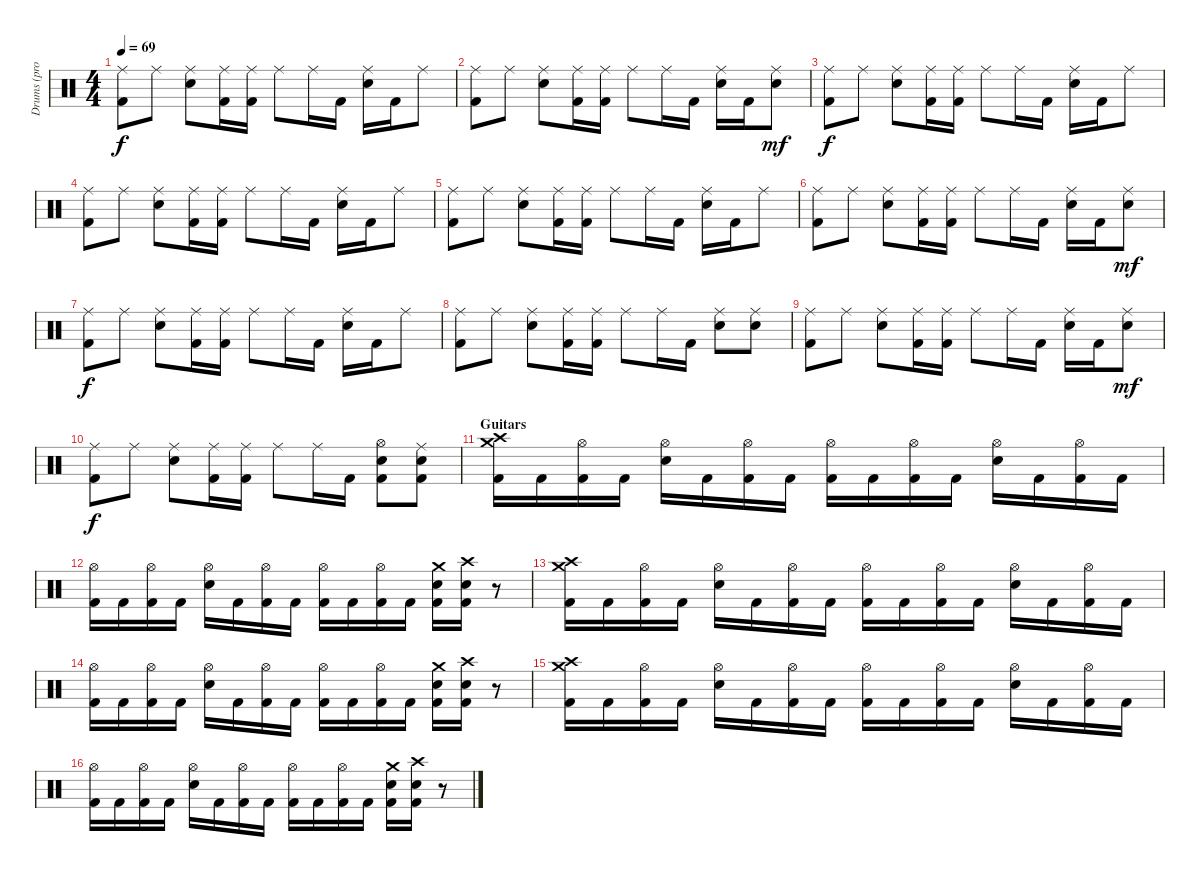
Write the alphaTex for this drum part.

\track ("Drums (proposal JZ)" "Drums (pro") {instrument percussion}
\staff {score}
\articulation defaults
\ts (4 4)
\tempo 69
\clef neutral
\ks c
("Ride (middle)" "Kick (hit) 2").8{dy f} "Ride (middle)".8 ("Ride (middle)" "Electric Snare (hit)").8 ("Ride (middle)" "Kick (hit) 2").16 ("Ride (middle)" "Kick (hit) 2").16 "Ride (middle)".8 "Ride (middle)".16 "Kick (hit) 2".16 ("Ride (middle)" "Electric Snare (hit)").16 "Kick (hit) 2".16 "Ride (middle)".8 |
("Ride (middle)" "Kick (hit) 2").8 "Ride (middle)".8 ("Ride (middle)" "Electric Snare (hit)").8 ("Ride (middle)" "Kick (hit) 2").16 ("Ride (middle)" "Kick (hit) 2").16 "Ride (middle)".8 "Ride (middle)".16 "Kick (hit) 2".16 ("Ride (middle)" "Electric Snare (hit)").16 "Kick (hit) 2".16 ("Ride (middle)" "Electric Snare (hit)").8{dy mf} |
("Ride (middle)" "Kick (hit) 2").8{dy f} "Ride (middle)".8 ("Ride (middle)" "Electric Snare (hit)").8 ("Ride (middle)" "Kick (hit) 2").16 ("Ride (middle)" "Kick (hit) 2").16 "Ride (middle)".8 "Ride (middle)".16 "Kick (hit) 2".16 ("Ride (middle)" "Electric Snare (hit)").16 "Kick (hit) 2".16 "Ride (middle)".8 |
("Ride (middle)" "Kick (hit) 2").8 "Ride (middle)".8 ("Ride (middle)" "Electric Snare (hit)").8 ("Ride (middle)" "Kick (hit) 2").16 ("Ride (middle)" "Kick (hit) 2").16 "Ride (middle)".8 "Ride (middle)".16 "Kick (hit) 2".16 ("Ride (middle)" "Electric Snare (hit)").16 "Kick (hit) 2".16 "Ride (middle)".8 |
("Ride (middle)" "Kick (hit) 2").8 "Ride (middle)".8 ("Ride (middle)" "Electric Snare (hit)").8 ("Ride (middle)" "Kick (hit) 2").16 ("Ride (middle)" "Kick (hit) 2").16 "Ride (middle)".8 "Ride (middle)".16 "Kick (hit) 2".16 ("Ride (middle)" "Electric Snare (hit)").16 "Kick (hit) 2".16 "Ride (middle)".8 |
("Ride (middle)" "Kick (hit) 2").8 "Ride (middle)".8 ("Ride (middle)" "Electric Snare (hit)").8 ("Ride (middle)" "Kick (hit) 2").16 ("Ride (middle)" "Kick (hit) 2").16 "Ride (middle)".8 "Ride (middle)".16 "Kick (hit) 2".16 ("Ride (middle)" "Electric Snare (hit)").16 "Kick (hit) 2".16 ("Ride (middle)" "Electric Snare (hit)").8{dy mf} |
("Ride (middle)" "Kick (hit) 2").8{dy f} "Ride (middle)".8 ("Ride (middle)" "Electric Snare (hit)").8 ("Ride (middle)" "Kick (hit) 2").16 ("Ride (middle)" "Kick (hit) 2").16 "Ride (middle)".8 "Ride (middle)".16 "Kick (hit) 2".16 ("Ride (middle)" "Electric Snare (hit)").16 "Kick (hit) 2".16 "Ride (middle)".8 |
("Ride (middle)" "Kick (hit) 2").8 "Ride (middle)".8 ("Ride (middle)" "Electric Snare (hit)").8 ("Ride (middle)" "Kick (hit) 2").16 ("Ride (middle)" "Kick (hit) 2").16 "Ride (middle)".8 "Ride (middle)".16 "Kick (hit) 2".16 ("Ride (middle)" "Electric Snare (hit)").8 ("Ride (middle)" "Electric Snare (hit)").8 |
("Ride (middle)" "Kick (hit) 2").8 "Ride (middle)".8 ("Ride (middle)" "Electric Snare (hit)").8 ("Ride (middle)" "Kick (hit) 2").16 ("Ride (middle)" "Kick (hit) 2").16 "Ride (middle)".8 "Ride (middle)".16 "Kick (hit) 2".16 ("Ride (middle)" "Electric Snare (hit)").16 "Kick (hit) 2".16 ("Ride (middle)" "Electric Snare (hit)").8{dy mf} |
("Ride (middle)" "Kick (hit) 2").8{dy f} "Ride (middle)".8 ("Ride (middle)" "Electric Snare (hit)").8 ("Ride (middle)" "Kick (hit) 2").16 ("Ride (middle)" "Kick (hit) 2").16 "Ride (middle)".8 "Ride (middle)".16 "Kick (hit) 2".16 ("Hi-Hat (open)" "Electric Snare (hit)" "Kick (hit) 2").8 ("Ride (middle)" "Electric Snare (hit)" "Kick (hit) 2").8 |
\section ("" "Guitars")
("Crash medium (hit)" "Crash high (hit)" "Kick (hit) 2").16 "Kick (hit) 2".16 ("Hi-Hat (open)" "Kick (hit) 2").16 "Kick (hit) 2".16 ("Hi-Hat (open)" "Electric Snare (hit)").16 "Kick (hit) 2".16 ("Hi-Hat (open)" "Kick (hit) 2").16 "Kick (hit) 2".16 ("Hi-Hat (open)" "Kick (hit) 2").16 "Kick (hit) 2".16 ("Hi-Hat (open)" "Kick (hit) 2").16 "Kick (hit) 2".16 ("Hi-Hat (open)" "Electric Snare (hit)").16 "Kick (hit) 2".16 ("Hi-Hat (open)" "Kick (hit) 2").16 "Kick (hit) 2".16 |
("Hi-Hat (open)" "Kick (hit) 2").16 "Kick (hit) 2".16 ("Hi-Hat (open)" "Kick (hit) 2").16 "Kick (hit) 2".16 ("Hi-Hat (open)" "Electric Snare (hit)").16 "Kick (hit) 2".16 ("Hi-Hat (open)" "Kick (hit) 2").16 "Kick (hit) 2".16 ("Hi-Hat (open)" "Kick (hit) 2").16 "Kick (hit) 2".16 ("Hi-Hat (open)" "Kick (hit) 2").16 "Kick (hit) 2".16 ("Crash medium (hit)" "Electric Snare (hit)" "Kick (hit) 2").16 ("Crash high (hit)" "Electric Snare (hit)" "Kick (hit) 2").16 r.8 |
("Crash medium (hit)" "Crash high (hit)" "Kick (hit) 2").16 "Kick (hit) 2".16 ("Hi-Hat (open)" "Kick (hit) 2").16 "Kick (hit) 2".16 ("Hi-Hat (open)" "Electric Snare (hit)").16 "Kick (hit) 2".16 ("Hi-Hat (open)" "Kick (hit) 2").16 "Kick (hit) 2".16 ("Hi-Hat (open)" "Kick (hit) 2").16 "Kick (hit) 2".16 ("Hi-Hat (open)" "Kick (hit) 2").16 "Kick (hit) 2".16 ("Hi-Hat (open)" "Electric Snare (hit)").16 "Kick (hit) 2".16 ("Hi-Hat (open)" "Kick (hit) 2").16 "Kick (hit) 2".16 |
("Hi-Hat (open)" "Kick (hit) 2").16 "Kick (hit) 2".16 ("Hi-Hat (open)" "Kick (hit) 2").16 "Kick (hit) 2".16 ("Hi-Hat (open)" "Electric Snare (hit)").16 "Kick (hit) 2".16 ("Hi-Hat (open)" "Kick (hit) 2").16 "Kick (hit) 2".16 ("Hi-Hat (open)" "Kick (hit) 2").16 "Kick (hit) 2".16 ("Hi-Hat (open)" "Kick (hit) 2").16 "Kick (hit) 2".16 ("Crash medium (hit)" "Electric Snare (hit)" "Kick (hit) 2").16 ("Crash high (hit)" "Electric Snare (hit)" "Kick (hit) 2").16 r.8 |
("Crash medium (hit)" "Crash high (hit)" "Kick (hit) 2").16 "Kick (hit) 2".16 ("Hi-Hat (open)" "Kick (hit) 2").16 "Kick (hit) 2".16 ("Hi-Hat (open)" "Electric Snare (hit)").16 "Kick (hit) 2".16 ("Hi-Hat (open)" "Kick (hit) 2").16 "Kick (hit) 2".16 ("Hi-Hat (open)" "Kick (hit) 2").16 "Kick (hit) 2".16 ("Hi-Hat (open)" "Kick (hit) 2").16 "Kick (hit) 2".16 ("Hi-Hat (open)" "Electric Snare (hit)").16 "Kick (hit) 2".16 ("Hi-Hat (open)" "Kick (hit) 2").16 "Kick (hit) 2".16 |
("Hi-Hat (open)" "Kick (hit) 2").16 "Kick (hit) 2".16 ("Hi-Hat (open)" "Kick (hit) 2").16 "Kick (hit) 2".16 ("Hi-Hat (open)" "Electric Snare (hit)").16 "Kick (hit) 2".16 ("Hi-Hat (open)" "Kick (hit) 2").16 "Kick (hit) 2".16 ("Hi-Hat (open)" "Kick (hit) 2").16 "Kick (hit) 2".16 ("Hi-Hat (open)" "Kick (hit) 2").16 "Kick (hit) 2".16 ("Crash medium (hit)" "Electric Snare (hit)" "Kick (hit) 2").16 ("Crash high (hit)" "Electric Snare (hit)" "Kick (hit) 2").16 r.8
